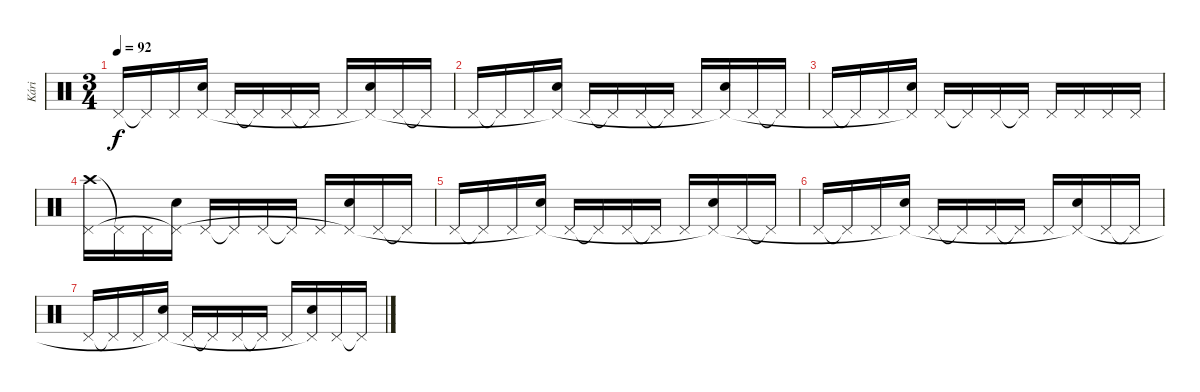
\track ("Kári" "Kári") {instrument percussion}
\staff {score}
\articulation defaults
\ts (3 4)
\tempo 92
\clef neutral
\ks c "Pedal Hi-Hat (hit)".16{dy f} "Pedal Hi-Hat (hit)"{t}.16 "Pedal Hi-Hat (hit)".16
("Electric Snare (hit)" "Pedal Hi-Hat (hit)"{t}).16 "Pedal Hi-Hat (hit)".16 "Pedal Hi-Hat (hit)"{t}.16 "Pedal Hi-Hat (hit)".16 "Pedal Hi-Hat (hit)"{t}.16 "Pedal Hi-Hat (hit)".16 ("Electric Snare (hit)" "Pedal Hi-Hat (hit)"{t}).16 "Pedal Hi-Hat (hit)".16 "Pedal Hi-Hat (hit)"{t}.16 |
"Pedal Hi-Hat (hit)".16 "Pedal Hi-Hat (hit)"{t}.16 "Pedal Hi-Hat (hit)".16 ("Electric Snare (hit)" "Pedal Hi-Hat (hit)"{t}).16 "Pedal Hi-Hat (hit)".16 "Pedal Hi-Hat (hit)"{t}.16 "Pedal Hi-Hat (hit)".16 "Pedal Hi-Hat (hit)"{t}.16 "Pedal Hi-Hat (hit)".16 ("Electric Snare (hit)" "Pedal Hi-Hat (hit)"{t}).16 "Pedal Hi-Hat (hit)".16 "Pedal Hi-Hat (hit)"{t}.16 |
"Pedal Hi-Hat (hit)".16 "Pedal Hi-Hat (hit)"{t}.16 "Pedal Hi-Hat (hit)".16 ("Electric Snare (hit)" "Pedal Hi-Hat (hit)"{t}).16 "Pedal Hi-Hat (hit)".16 "Pedal Hi-Hat (hit)"{t}.16 "Pedal Hi-Hat (hit)".16 "Pedal Hi-Hat (hit)"{t}.16 "Pedal Hi-Hat (hit)".16 "Pedal Hi-Hat (hit)".16 "Pedal Hi-Hat (hit)".16 "Pedal Hi-Hat (hit)".16 |
("Crash high (hit)" "Pedal Hi-Hat (hit)").16 "Pedal Hi-Hat (hit)"{t}.16 "Pedal Hi-Hat (hit)".16 ("Electric Snare (hit)" "Pedal Hi-Hat (hit)"{t}).16 "Pedal Hi-Hat (hit)".16 "Pedal Hi-Hat (hit)"{t}.16 "Pedal Hi-Hat (hit)".16 "Pedal Hi-Hat (hit)"{t}.16 "Pedal Hi-Hat (hit)".16 ("Electric Snare (hit)" "Pedal Hi-Hat (hit)"{t}).16 "Pedal Hi-Hat (hit)".16 "Pedal Hi-Hat (hit)"{t}.16 |
"Pedal Hi-Hat (hit)".16 "Pedal Hi-Hat (hit)"{t}.16 "Pedal Hi-Hat (hit)".16 ("Electric Snare (hit)" "Pedal Hi-Hat (hit)"{t}).16 "Pedal Hi-Hat (hit)".16 "Pedal Hi-Hat (hit)"{t}.16 "Pedal Hi-Hat (hit)".16 "Pedal Hi-Hat (hit)"{t}.16 "Pedal Hi-Hat (hit)".16 ("Electric Snare (hit)" "Pedal Hi-Hat (hit)"{t}).16 "Pedal Hi-Hat (hit)".16 "Pedal Hi-Hat (hit)"{t}.16 |
"Pedal Hi-Hat (hit)".16 "Pedal Hi-Hat (hit)"{t}.16 "Pedal Hi-Hat (hit)".16 ("Electric Snare (hit)" "Pedal Hi-Hat (hit)"{t}).16 "Pedal Hi-Hat (hit)".16 "Pedal Hi-Hat (hit)"{t}.16 "Pedal Hi-Hat (hit)".16 "Pedal Hi-Hat (hit)"{t}.16 "Pedal Hi-Hat (hit)".16 ("Electric Snare (hit)" "Pedal Hi-Hat (hit)"{t}).16 "Pedal Hi-Hat (hit)".16 "Pedal Hi-Hat (hit)"{t}.16 |
"Pedal Hi-Hat (hit)".16 "Pedal Hi-Hat (hit)"{t}.16 "Pedal Hi-Hat (hit)".16 ("Electric Snare (hit)" "Pedal Hi-Hat (hit)"{t}).16 "Pedal Hi-Hat (hit)".16 "Pedal Hi-Hat (hit)"{t}.16 "Pedal Hi-Hat (hit)".16 "Pedal Hi-Hat (hit)"{t}.16 "Pedal Hi-Hat (hit)".16 ("Electric Snare (hit)" "Pedal Hi-Hat (hit)"{t}).16 "Pedal Hi-Hat (hit)".16 "Pedal Hi-Hat (hit)"{t}.16
